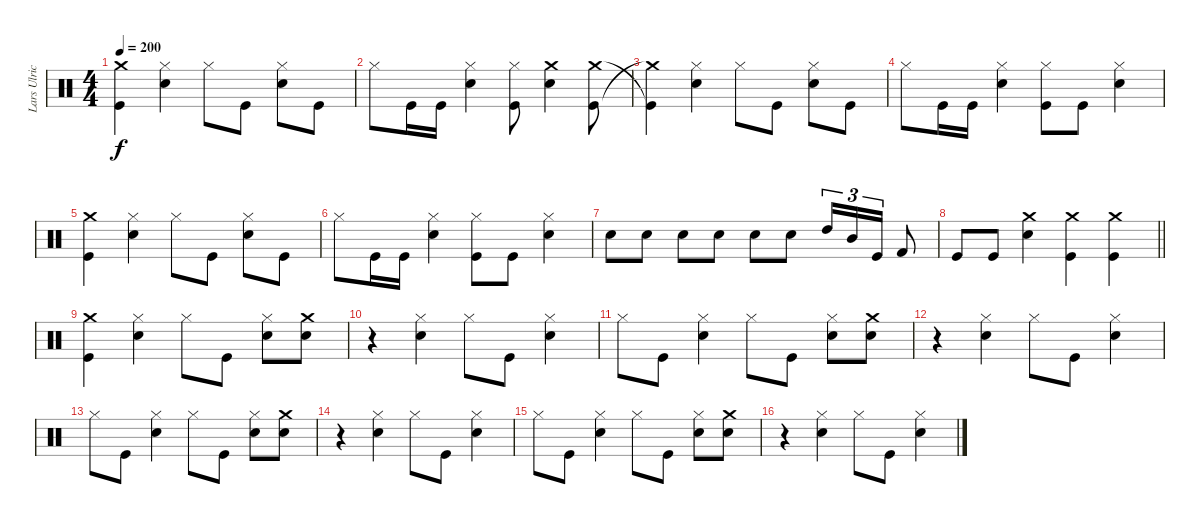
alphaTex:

\track ("Lars Ulrich (Drums)" "Lars Ulric") {instrument percussion}
\staff {score}
\articulation defaults
\ts (4 4)
\tempo 200
\clef neutral
\ks c
("Kick (hit)" "Crash medium (hit)").4{dy f} ("Hi-Hat (closed)" "Snare (hit) 2").4 "Hi-Hat (closed)".8 "Kick (hit)".8 ("Snare (hit) 2" "Hi-Hat (closed)").8 "Kick (hit)".8 |
"Hi-Hat (closed)".8 "Kick (hit)".16 "Kick (hit)".16 ("Snare (hit) 2" "Hi-Hat (closed)").4 ("Kick (hit)" "Hi-Hat (closed)").8 ("Snare (hit) 2" "Crash medium (hit)").4 ("Crash medium (hit)" "Kick (hit)").8 |
("Kick (hit)"{t} "Crash medium (hit)"{t}).4 ("Hi-Hat (closed)" "Snare (hit) 2").4 "Hi-Hat (closed)".8 "Kick (hit)".8 ("Snare (hit) 2" "Hi-Hat (closed)").8 "Kick (hit)".8 |
"Hi-Hat (closed)".8 "Kick (hit)".16 "Kick (hit)".16 ("Snare (hit) 2" "Hi-Hat (closed)").4 ("Hi-Hat (closed)" "Kick (hit)").8 "Kick (hit)".8 ("Snare (hit) 2" "Hi-Hat (closed)").4 |
("Kick (hit)" "Crash medium (hit)").4 ("Hi-Hat (closed)" "Snare (hit) 2").4 "Hi-Hat (closed)".8 "Kick (hit)".8 ("Snare (hit) 2" "Hi-Hat (closed)").8 "Kick (hit)".8 |
"Hi-Hat (closed)".8 "Kick (hit)".16 "Kick (hit)".16 ("Snare (hit) 2" "Hi-Hat (closed)").4 ("Hi-Hat (closed)" "Kick (hit)").8 "Kick (hit)".8 ("Snare (hit) 2" "Hi-Hat (closed)").4 |
"Snare (hit) 2".8 "Snare (hit) 2".8 "Snare (hit) 2".8 "Snare (hit) 2".8 "Snare (hit) 2".8 "Snare (hit) 2".8 "High Tom (hit)".16{tu (3 2)} "Mid Tom (hit)".16{tu (3 2)} "Kick (hit)".16{tu (3 2)} "Kick (hit) 2".8 |
\barLineRight lightlight "Kick (hit)".8 "Kick (hit)".8
("Crash medium (hit)" "Snare (hit) 2").4 ("Crash medium (hit)" "Kick (hit)").4 ("Crash medium (hit)" "Kick (hit)").4 |
("Kick (hit)" "Crash medium (hit)").4 ("Hi-Hat (closed)" "Snare (hit) 2").4 "Hi-Hat (closed)".8 "Kick (hit)".8 ("Hi-Hat (closed)" "Snare (hit) 2").8 ("Crash medium (hit)" "Snare (hit) 2").8 |
r.4 ("Snare (hit) 2" "Hi-Hat (closed)").4 "Hi-Hat (closed)".8 "Kick (hit)".8 ("Snare (hit) 2" "Hi-Hat (closed)").4 |
"Hi-Hat (closed)".8 "Kick (hit)".8 ("Snare (hit) 2" "Hi-Hat (closed)").4 "Hi-Hat (closed)".8 "Kick (hit)".8 ("Hi-Hat (closed)" "Snare (hit) 2").8 ("Crash medium (hit)" "Snare (hit) 2").8 |
r.4 ("Snare (hit) 2" "Hi-Hat (closed)").4 "Hi-Hat (closed)".8 "Kick (hit)".8 ("Snare (hit) 2" "Hi-Hat (closed)").4 |
"Hi-Hat (closed)".8 "Kick (hit)".8 ("Snare (hit) 2" "Hi-Hat (closed)").4 "Hi-Hat (closed)".8 "Kick (hit)".8 ("Hi-Hat (closed)" "Snare (hit) 2").8 ("Crash medium (hit)" "Snare (hit) 2").8 |
r.4 ("Snare (hit) 2" "Hi-Hat (closed)").4 "Hi-Hat (closed)".8 "Kick (hit)".8 ("Snare (hit) 2" "Hi-Hat (closed)").4 |
"Hi-Hat (closed)".8 "Kick (hit)".8 ("Snare (hit) 2" "Hi-Hat (closed)").4 "Hi-Hat (closed)".8 "Kick (hit)".8 ("Hi-Hat (closed)" "Snare (hit) 2").8 ("Crash medium (hit)" "Snare (hit) 2").8 |
r.4 ("Snare (hit) 2" "Hi-Hat (closed)").4 "Hi-Hat (closed)".8 "Kick (hit)".8 ("Snare (hit) 2" "Hi-Hat (closed)").4
